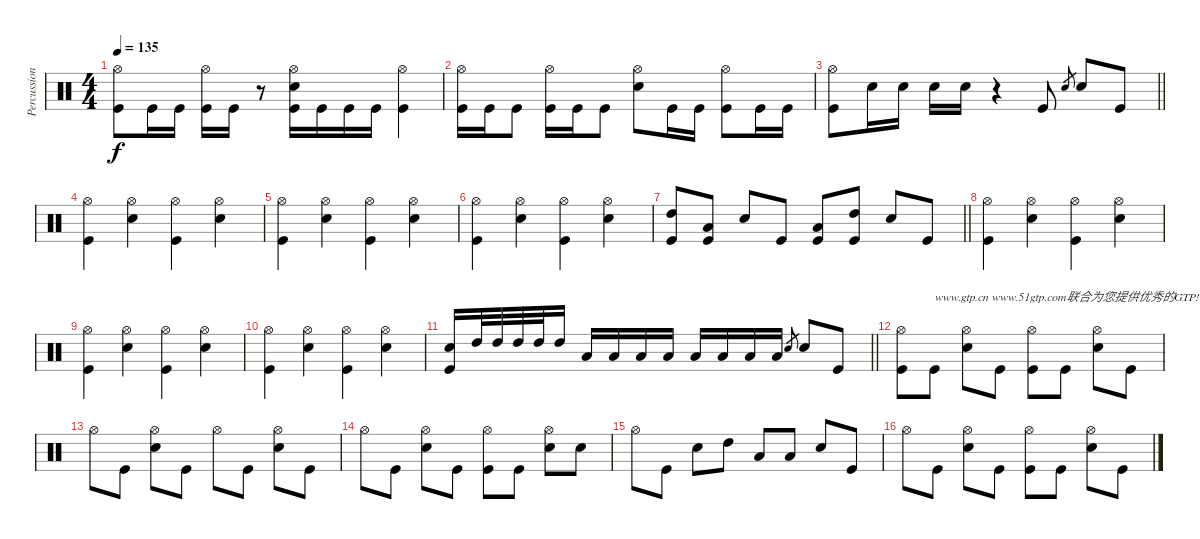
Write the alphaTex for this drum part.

\track ("Percussion" "Percussion") {instrument percussion}
\staff {score}
\articulation defaults
\ts (4 4)
\tempo 135
\clef neutral
\ks c
("Hi-Hat (open)" "Kick (hit)").8{dy f} "Kick (hit)".16 "Kick (hit)".16 ("Hi-Hat (open)" "Kick (hit)").16 "Kick (hit)".16 r.8 ("Hi-Hat (open)" "Electric Snare (hit)" "Kick (hit)").16 "Kick (hit)".16 "Kick (hit)".16 "Kick (hit)".16 ("Hi-Hat (open)" "Kick (hit)").4 |
("Hi-Hat (open)" "Kick (hit)").16 "Kick (hit)".16 "Kick (hit)".8 ("Hi-Hat (open)" "Kick (hit)").16 "Kick (hit)".16 "Kick (hit)".8 ("Hi-Hat (open)" "Electric Snare (hit)").8 "Kick (hit)".16 "Kick (hit)".16 ("Hi-Hat (open)" "Kick (hit)").8 "Kick (hit)".16 "Kick (hit)".16 |
\barLineRight lightlight
("Hi-Hat (open)" "Kick (hit)").8 "Electric Snare (hit)".16 "Electric Snare (hit)".16 "Electric Snare (hit)".16 "Electric Snare (hit)".16 r.4 "Kick (hit)".8 "Electric Snare (hit)".8{gr} "Electric Snare (hit)".8 "Kick (hit)".8 |
("Hi-Hat (open)" "Kick (hit)").4 ("Hi-Hat (open)" "Electric Snare (hit)").4 ("Hi-Hat (open)" "Kick (hit)").4 ("Hi-Hat (open)" "Electric Snare (hit)").4 |
("Hi-Hat (open)" "Kick (hit)").4 ("Hi-Hat (open)" "Electric Snare (hit)").4 ("Hi-Hat (open)" "Kick (hit)").4 ("Hi-Hat (open)" "Electric Snare (hit)").4 |
("Hi-Hat (open)" "Kick (hit)").4 ("Hi-Hat (open)" "Electric Snare (hit)").4 ("Hi-Hat (open)" "Kick (hit)").4 ("Hi-Hat (open)" "Electric Snare (hit)").4 |
\barLineRight lightlight
("High Tom (hit)" "Kick (hit)").8 ("Low Tom (hit)" "Kick (hit)").8 "Electric Snare (hit)".8 "Kick (hit)".8 ("Low Tom (hit)" "Kick (hit)").8 ("High Tom (hit)" "Kick (hit)").8 "Electric Snare (hit)".8 "Kick (hit)".8 |
("Hi-Hat (open)" "Kick (hit)").4 ("Hi-Hat (open)" "Electric Snare (hit)").4 ("Hi-Hat (open)" "Kick (hit)").4 ("Hi-Hat (open)" "Electric Snare (hit)").4 |
("Hi-Hat (open)" "Kick (hit)").4 ("Hi-Hat (open)" "Electric Snare (hit)").4 ("Hi-Hat (open)" "Kick (hit)").4 ("Hi-Hat (open)" "Electric Snare (hit)").4 |
("Hi-Hat (open)" "Kick (hit)").4 ("Hi-Hat (open)" "Electric Snare (hit)").4 ("Hi-Hat (open)" "Kick (hit)").4 ("Hi-Hat (open)" "Electric Snare (hit)").4 |
\barLineRight lightlight
("Electric Snare (hit)" "Kick (hit)").16 "High Tom (hit)".32 "High Tom (hit)".32 "High Tom (hit)".32 "High Tom (hit)".32 "High Tom (hit)".16 "Low Tom (hit)".16 "Low Tom (hit)".16 "Low Tom (hit)".16 "Low Tom (hit)".16 "Low Floor Tom (hit)".16 "Low Floor Tom (hit)".16 "Low Floor Tom (hit)".16 "Low Floor Tom (hit)".16 "Electric Snare (hit)".8{gr} "Electric Snare (hit)".8 "Kick (hit)".8 |
("Hi-Hat (open)" "Kick (hit)").8 "Kick (hit)".8{txt "www.gtp.cn www.51gtp.com联合为您提供优秀的GTP!"} ("Hi-Hat (open)" "Electric Snare (hit)").8 "Kick (hit)".8 ("Hi-Hat (open)" "Kick (hit)").8 "Kick (hit)".8 ("Hi-Hat (open)" "Electric Snare (hit)").8 "Kick (hit)".8 |
"Hi-Hat (open)".8 "Kick (hit)".8 ("Hi-Hat (open)" "Electric Snare (hit)").8 "Kick (hit)".8 "Hi-Hat (open)".8 "Kick (hit)".8 ("Hi-Hat (open)" "Electric Snare (hit)").8 "Kick (hit)".8 |
"Hi-Hat (open)".8 "Kick (hit)".8 ("Hi-Hat (open)" "Electric Snare (hit)").8 "Kick (hit)".8 ("Hi-Hat (open)" "Kick (hit)").8 "Kick (hit)".8 ("Hi-Hat (open)" "Electric Snare (hit)").8 "Electric Snare (hit)".8 |
"Hi-Hat (open)".8 "Kick (hit)".8 "Electric Snare (hit)".8 "High Tom (hit)".8 "Low Tom (hit)".8 "Low Floor Tom (hit)".8 "Electric Snare (hit)".8 "Kick (hit)".8 |
"Hi-Hat (open)".8 "Kick (hit)".8 ("Hi-Hat (open)" "Electric Snare (hit)").8 "Kick (hit)".8 ("Hi-Hat (open)" "Kick (hit)").8 "Kick (hit)".8 ("Hi-Hat (open)" "Electric Snare (hit)").8 "Kick (hit)".8
